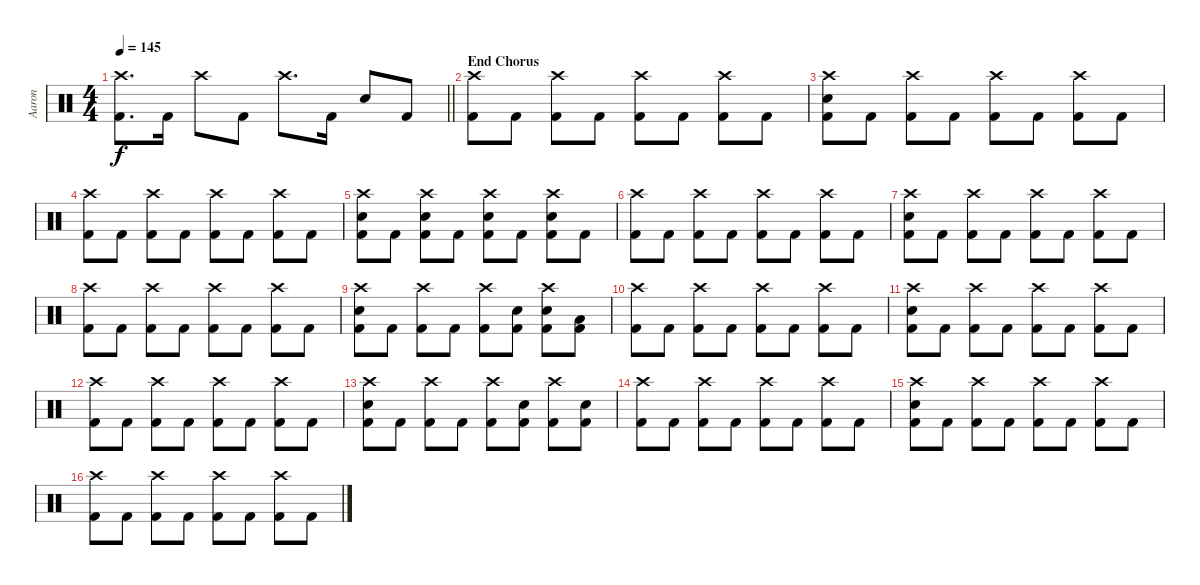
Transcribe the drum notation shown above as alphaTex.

\track ("Aaron" "Aaron") {instrument percussion}
\staff {score}
\articulation defaults
\ts (4 4)
\tempo 145
\clef neutral
\barLineRight lightlight
\ks c
("Crash high (hit)" "Kick (hit) 2").8{d dy f} "Kick (hit) 2".16 "Crash high (hit)".8 "Kick (hit) 2".8 "Crash high (hit)".8{d} "Kick (hit) 2".16 "Snare (hit) 2".8 "Kick (hit) 2".8 |
\section ("" "End Chorus")
("Crash high (hit)" "Kick (hit) 2").8 "Kick (hit) 2".8 ("Crash high (hit)" "Kick (hit) 2").8 "Kick (hit) 2".8 ("Crash high (hit)" "Kick (hit) 2").8 "Kick (hit) 2".8 ("Crash high (hit)" "Kick (hit) 2").8 "Kick (hit) 2".8 |
("Crash high (hit)" "Snare (hit) 2" "Kick (hit) 2").8 "Kick (hit) 2".8 ("Crash high (hit)" "Kick (hit) 2").8 "Kick (hit) 2".8 ("Crash high (hit)" "Kick (hit) 2").8 "Kick (hit) 2".8 ("Crash high (hit)" "Kick (hit) 2").8 "Kick (hit) 2".8 |
("Crash high (hit)" "Kick (hit) 2").8 "Kick (hit) 2".8 ("Crash high (hit)" "Kick (hit) 2").8 "Kick (hit) 2".8 ("Crash high (hit)" "Kick (hit) 2").8 "Kick (hit) 2".8 ("Crash high (hit)" "Kick (hit) 2").8 "Kick (hit) 2".8 |
("Crash high (hit)" "Snare (hit) 2" "Kick (hit) 2").8 "Kick (hit) 2".8 ("Crash high (hit)" "Snare (hit) 2" "Kick (hit) 2").8 "Kick (hit) 2".8 ("Crash high (hit)" "Snare (hit) 2" "Kick (hit) 2").8 "Kick (hit) 2".8 ("Crash high (hit)" "Snare (hit) 2" "Kick (hit) 2").8 "Kick (hit) 2".8 |
("Crash high (hit)" "Kick (hit) 2").8 "Kick (hit) 2".8 ("Crash high (hit)" "Kick (hit) 2").8 "Kick (hit) 2".8 ("Crash high (hit)" "Kick (hit) 2").8 "Kick (hit) 2".8 ("Crash high (hit)" "Kick (hit) 2").8 "Kick (hit) 2".8 |
("Crash high (hit)" "Snare (hit) 2" "Kick (hit) 2").8 "Kick (hit) 2".8 ("Crash high (hit)" "Kick (hit) 2").8 "Kick (hit) 2".8 ("Crash high (hit)" "Kick (hit) 2").8 "Kick (hit) 2".8 ("Crash high (hit)" "Kick (hit) 2").8 "Kick (hit) 2".8 |
("Crash high (hit)" "Kick (hit) 2").8 "Kick (hit) 2".8 ("Crash high (hit)" "Kick (hit) 2").8 "Kick (hit) 2".8 ("Crash high (hit)" "Kick (hit) 2").8 "Kick (hit) 2".8 ("Crash high (hit)" "Kick (hit) 2").8 "Kick (hit) 2".8 |
("Crash high (hit)" "Snare (hit) 2" "Kick (hit) 2").8 "Kick (hit) 2".8 ("Crash high (hit)" "Kick (hit) 2").8 "Kick (hit) 2".8 ("Crash high (hit)" "Kick (hit) 2").8 ("Snare (hit) 2" "Kick (hit) 2").8 ("Crash high (hit)" "Snare (hit) 2" "Kick (hit) 2").8 ("Low Tom (hit)" "Kick (hit) 2").8 |
("Crash high (hit)" "Kick (hit) 2").8 "Kick (hit) 2".8 ("Crash high (hit)" "Kick (hit) 2").8 "Kick (hit) 2".8 ("Crash high (hit)" "Kick (hit) 2").8 "Kick (hit) 2".8 ("Crash high (hit)" "Kick (hit) 2").8 "Kick (hit) 2".8 |
("Crash high (hit)" "Snare (hit) 2" "Kick (hit) 2").8 "Kick (hit) 2".8 ("Crash high (hit)" "Kick (hit) 2").8 "Kick (hit) 2".8 ("Crash high (hit)" "Kick (hit) 2").8 "Kick (hit) 2".8 ("Crash high (hit)" "Kick (hit) 2").8 "Kick (hit) 2".8 |
("Crash high (hit)" "Kick (hit) 2").8 "Kick (hit) 2".8 ("Crash high (hit)" "Kick (hit) 2").8 "Kick (hit) 2".8 ("Crash high (hit)" "Kick (hit) 2").8 "Kick (hit) 2".8 ("Crash high (hit)" "Kick (hit) 2").8 "Kick (hit) 2".8 |
("Crash high (hit)" "Snare (hit) 2" "Kick (hit) 2").8 "Kick (hit) 2".8 ("Crash high (hit)" "Kick (hit) 2").8 "Kick (hit) 2".8 ("Crash high (hit)" "Kick (hit) 2").8 ("Snare (hit) 2" "Kick (hit) 2").8 ("Crash high (hit)" "Kick (hit) 2").8 ("Snare (hit) 2" "Kick (hit) 2").8 |
("Crash high (hit)" "Kick (hit) 2").8 "Kick (hit) 2".8 ("Crash high (hit)" "Kick (hit) 2").8 "Kick (hit) 2".8 ("Crash high (hit)" "Kick (hit) 2").8 "Kick (hit) 2".8 ("Crash high (hit)" "Kick (hit) 2").8 "Kick (hit) 2".8 |
("Crash high (hit)" "Snare (hit) 2" "Kick (hit) 2").8 "Kick (hit) 2".8 ("Crash high (hit)" "Kick (hit) 2").8 "Kick (hit) 2".8 ("Crash high (hit)" "Kick (hit) 2").8 "Kick (hit) 2".8 ("Crash high (hit)" "Kick (hit) 2").8 "Kick (hit) 2".8 |
("Crash high (hit)" "Kick (hit) 2").8 "Kick (hit) 2".8 ("Crash high (hit)" "Kick (hit) 2").8 "Kick (hit) 2".8 ("Crash high (hit)" "Kick (hit) 2").8 "Kick (hit) 2".8 ("Crash high (hit)" "Kick (hit) 2").8 "Kick (hit) 2".8
